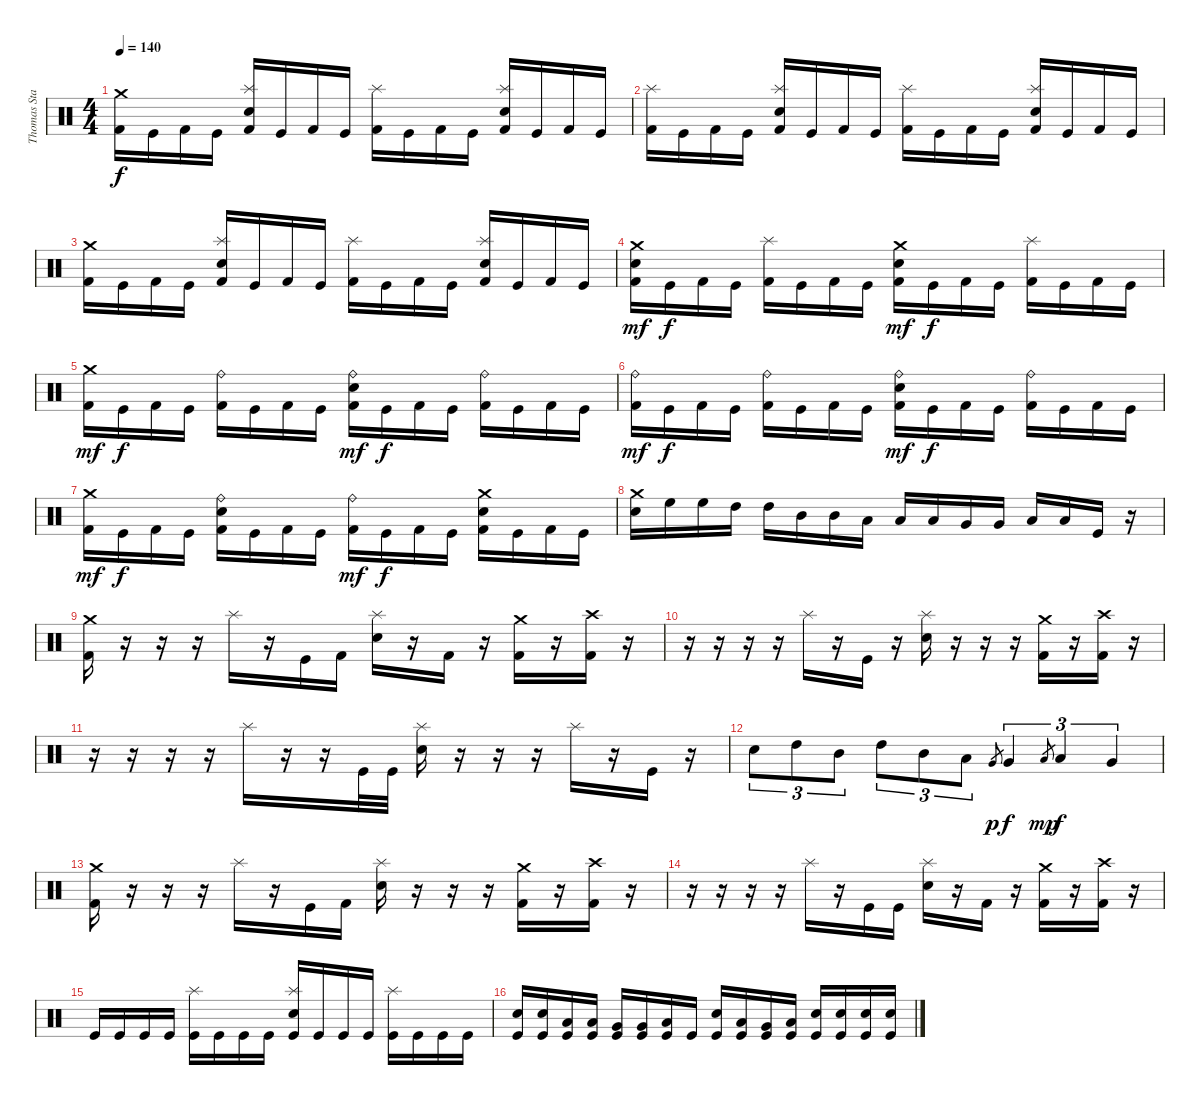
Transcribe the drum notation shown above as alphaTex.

\track ("Thomas Stauch" "Thomas Sta") {instrument percussion}
\staff {score}
\articulation defaults
\ts (4 4)
\tempo 140
\clef neutral
\ks c
("Crash medium (hit)" "Kick (hit) 2").16{dy f} "Kick (hit)".16 "Kick (hit) 2".16 "Kick (hit)".16 ("Splash (hit)" "Electric Snare (hit)" "Kick (hit) 2").16 "Kick (hit)".16 "Kick (hit) 2".16 "Kick (hit)".16 ("Splash (hit)" "Kick (hit) 2").16 "Kick (hit)".16 "Kick (hit) 2".16 "Kick (hit)".16 ("Splash (hit)" "Electric Snare (hit)" "Kick (hit) 2").16 "Kick (hit)".16 "Kick (hit) 2".16 "Kick (hit)".16 |
("Splash (hit)" "Kick (hit) 2").16 "Kick (hit)".16 "Kick (hit) 2".16 "Kick (hit)".16 ("Splash (hit)" "Electric Snare (hit)" "Kick (hit) 2").16 "Kick (hit)".16 "Kick (hit) 2".16 "Kick (hit)".16 ("Splash (hit)" "Kick (hit) 2").16 "Kick (hit)".16 "Kick (hit) 2".16 "Kick (hit)".16 ("Splash (hit)" "Electric Snare (hit)" "Kick (hit) 2").16 "Kick (hit)".16 "Kick (hit) 2".16 "Kick (hit)".16 |
("Crash medium (hit)" "Kick (hit) 2").16 "Kick (hit)".16 "Kick (hit) 2".16 "Kick (hit)".16 ("Splash (hit)" "Electric Snare (hit)" "Kick (hit) 2").16 "Kick (hit)".16 "Kick (hit) 2".16 "Kick (hit)".16 ("Splash (hit)" "Kick (hit) 2").16 "Kick (hit)".16 "Kick (hit) 2".16 "Kick (hit)".16 ("Splash (hit)" "Electric Snare (hit)" "Kick (hit) 2").16 "Kick (hit)".16 "Kick (hit) 2".16 "Kick (hit)".16 |
("Crash medium (hit)" "Electric Snare (hit)" "Kick (hit) 2").16{dy mf} "Kick (hit)".16{dy f} "Kick (hit) 2".16 "Kick (hit)".16 ("Splash (hit)" "Kick (hit) 2").16 "Kick (hit)".16 "Kick (hit) 2".16 "Kick (hit)".16 ("Crash medium (hit)" "Electric Snare (hit)" "Kick (hit) 2").16{dy mf} "Kick (hit)".16{dy f} "Kick (hit) 2".16 "Kick (hit)".16 ("Splash (hit)" "Kick (hit) 2").16 "Kick (hit)".16 "Kick (hit) 2".16 "Kick (hit)".16 |
("Crash medium (hit)" "Kick (hit) 2").16{dy mf} "Kick (hit)".16{dy f} "Kick (hit) 2".16 "Kick (hit)".16 ("Ride (bell)" "Kick (hit) 2").16 "Kick (hit)".16 "Kick (hit) 2".16 "Kick (hit)".16 ("Ride (bell)" "Electric Snare (hit)" "Kick (hit) 2").16{dy mf} "Kick (hit)".16{dy f} "Kick (hit) 2".16 "Kick (hit)".16 ("Ride (bell)" "Kick (hit) 2").16 "Kick (hit)".16 "Kick (hit) 2".16 "Kick (hit)".16 |
("Ride (bell)" "Kick (hit) 2").16{dy mf} "Kick (hit)".16{dy f} "Kick (hit) 2".16 "Kick (hit)".16 ("Ride (bell)" "Kick (hit) 2").16 "Kick (hit)".16 "Kick (hit) 2".16 "Kick (hit)".16 ("Ride (bell)" "Electric Snare (hit)" "Kick (hit) 2").16{dy mf} "Kick (hit)".16{dy f} "Kick (hit) 2".16 "Kick (hit)".16 ("Ride (bell)" "Kick (hit) 2").16 "Kick (hit)".16 "Kick (hit) 2".16 "Kick (hit)".16 |
("Crash medium (hit)" "Kick (hit) 2").16{dy mf} "Kick (hit)".16{dy f} "Kick (hit) 2".16 "Kick (hit)".16 ("Ride (bell)" "Electric Snare (hit)" "Kick (hit) 2").16 "Kick (hit)".16 "Kick (hit) 2".16 "Kick (hit)".16 ("Ride (bell)" "Kick (hit) 2").16{dy mf} "Kick (hit)".16{dy f} "Kick (hit) 2".16 "Kick (hit)".16 ("Crash medium (hit)" "Electric Snare (hit)" "Kick (hit) 2").16 "Kick (hit)".16 "Kick (hit) 2".16 "Kick (hit)".16 |
("Crash medium (hit)" "Electric Snare (hit)").16 "High Floor Tom (hit)".16 "High Floor Tom (hit)".16 "High Tom (hit)".16 "High Tom (hit)".16 "Mid Tom (hit)".16 "Mid Tom (hit)".16 "Low Tom (hit)".16 "Low Tom (hit)".16 "Low Tom (hit)".16 "Very Low Tom (hit)".16 "Very Low Tom (hit)".16 "Low Floor Tom (hit)".16 "Low Floor Tom (hit)".16 "Kick (hit)".16 r.16 |
("Crash medium (hit)" "Kick (hit) 2").16 r.16 r.16 r.16 "Splash (hit)".16 r.16 "Kick (hit)".16 "Kick (hit) 2".16 ("Splash (hit)" "Electric Snare (hit)").16 r.16 "Kick (hit) 2".16 r.16 ("Crash medium (hit)" "Kick (hit) 2").16 r.16 ("Crash high (hit)" "Kick (hit) 2").16 r.16 |
r.16 r.16 r.16 r.16 "Splash (hit)".16 r.16 "Kick (hit)".16 r.16 ("Splash (hit)" "Electric Snare (hit)").16 r.16 r.16 r.16 ("Crash medium (hit)" "Kick (hit) 2").16 r.16 ("Crash high (hit)" "Kick (hit) 2").16 r.16 |
r.16 r.16 r.16 r.16 "Splash (hit)".16 r.16 r.16 "Kick (hit)".32 "Kick (hit)".32 ("Splash (hit)" "Electric Snare (hit)").16 r.16 r.16 r.16 "Splash (hit)".16 r.16 "Kick (hit)".16 r.16 |
"Electric Snare (hit)".8{tu (3 2)} "High Tom (hit)".8{tu (3 2)} "Mid Tom (hit)".8{tu (3 2)} "High Tom (hit)".8{tu (3 2)} "Mid Tom (hit)".8{tu (3 2)} "Low Tom (hit)".8{tu (3 2)} "Very Low Tom (hit)".8{gr dy p} "Very Low Tom (hit)".4{tu (3 2) dy f} "Low Floor Tom (hit)".8{gr dy mp} "Low Floor Tom (hit)".4{tu (3 2) dy f} "Very Low Tom (hit)".4{tu (3 2)} |
("Crash medium (hit)" "Kick (hit) 2").16 r.16 r.16 r.16 "Splash (hit)".16 r.16 "Kick (hit)".16 "Kick (hit) 2".16 ("Splash (hit)" "Electric Snare (hit)").16 r.16 r.16 r.16 ("Crash medium (hit)" "Kick (hit) 2").16 r.16 ("Crash high (hit)" "Kick (hit) 2").16 r.16 |
r.16 r.16 r.16 r.16 "Splash (hit)".16 r.16 "Kick (hit)".16 "Kick (hit)".16 ("Splash (hit)" "Electric Snare (hit)").16 r.16 "Kick (hit) 2".16 r.16 ("Crash medium (hit)" "Kick (hit) 2").16 r.16 ("Crash high (hit)" "Kick (hit) 2").16 r.16 |
"Kick (hit)".16 "Kick (hit)".16 "Kick (hit)".16 "Kick (hit)".16 ("Splash (hit)" "Kick (hit)").16 "Kick (hit)".16 "Kick (hit)".16 "Kick (hit)".16 ("Splash (hit)" "Electric Snare (hit)" "Kick (hit)").16 "Kick (hit)".16 "Kick (hit)".16 "Kick (hit)".16 ("Splash (hit)" "Kick (hit)").16 "Kick (hit)".16 "Kick (hit)".16 "Kick (hit)".16 |
("Electric Snare (hit)" "Kick (hit)").16 ("Electric Snare (hit)" "Kick (hit)").16 ("Low Tom (hit)" "Kick (hit)").16 ("Low Tom (hit)" "Kick (hit)").16 ("Very Low Tom (hit)" "Kick (hit)").16 ("Very Low Tom (hit)" "Kick (hit)").16 ("Low Floor Tom (hit)" "Kick (hit)").16 "Kick (hit)".16 ("Electric Snare (hit)" "Kick (hit)").16 ("Low Tom (hit)" "Kick (hit)").16 ("Very Low Tom (hit)" "Kick (hit)").16 ("Low Floor Tom (hit)" "Kick (hit)").16 ("Electric Snare (hit)" "Kick (hit)").16 ("Electric Snare (hit)" "Kick (hit)").16 ("Electric Snare (hit)" "Kick (hit)").16 ("Electric Snare (hit)" "Kick (hit)").16
